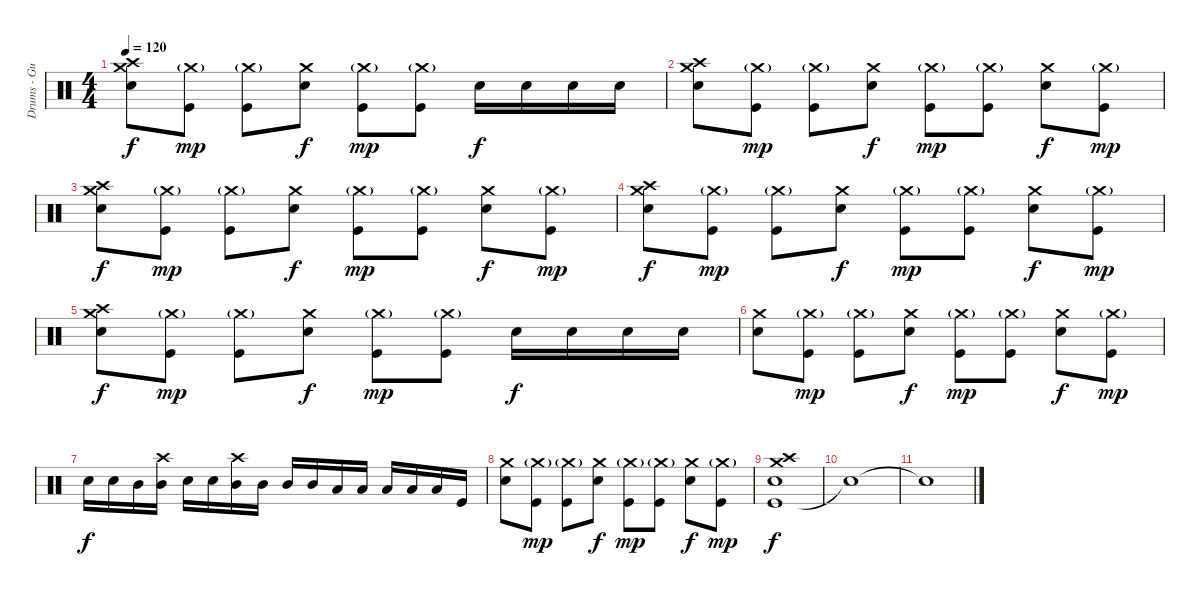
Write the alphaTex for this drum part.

\track ("Drums - Gustav" "Drums - Gu") {instrument percussion}
\staff {score}
\articulation defaults
\ts (4 4)
\tempo 120
\clef neutral
\ks c
("Snare (hit) 2" "Crash high (hit)" "Crash medium (hit)").8{dy f} ("Kick (hit)" "Crash medium (hit)"{g}).8{dy mp} ("Kick (hit)" "Crash medium (hit)"{g}).8 ("Snare (hit) 2" "Crash medium (hit)").8{dy f} ("Kick (hit)" "Crash medium (hit)"{g}).8{dy mp} ("Kick (hit)" "Crash medium (hit)"{g}).8 "Snare (hit) 2".16{dy f} "Snare (hit) 2".16 "Snare (hit) 2".16 "Snare (hit) 2".16 |
("Snare (hit) 2" "Crash high (hit)" "Crash medium (hit)").8 ("Kick (hit)" "Crash medium (hit)"{g}).8{dy mp} ("Kick (hit)" "Crash medium (hit)"{g}).8 ("Snare (hit) 2" "Crash medium (hit)").8{dy f} ("Kick (hit)" "Crash medium (hit)"{g}).8{dy mp} ("Kick (hit)" "Crash medium (hit)"{g}).8 ("Snare (hit) 2" "Crash medium (hit)").8{dy f} ("Kick (hit)" "Crash medium (hit)"{g}).8{dy mp} |
("Snare (hit) 2" "Crash high (hit)" "Crash medium (hit)").8{dy f} ("Kick (hit)" "Crash medium (hit)"{g}).8{dy mp} ("Kick (hit)" "Crash medium (hit)"{g}).8 ("Snare (hit) 2" "Crash medium (hit)").8{dy f} ("Kick (hit)" "Crash medium (hit)"{g}).8{dy mp} ("Kick (hit)" "Crash medium (hit)"{g}).8 ("Snare (hit) 2" "Crash medium (hit)").8{dy f} ("Kick (hit)" "Crash medium (hit)"{g}).8{dy mp} |
("Snare (hit) 2" "Crash high (hit)" "Crash medium (hit)").8{dy f} ("Kick (hit)" "Crash medium (hit)"{g}).8{dy mp} ("Kick (hit)" "Crash medium (hit)"{g}).8 ("Snare (hit) 2" "Crash medium (hit)").8{dy f} ("Kick (hit)" "Crash medium (hit)"{g}).8{dy mp} ("Kick (hit)" "Crash medium (hit)"{g}).8 ("Snare (hit) 2" "Crash medium (hit)").8{dy f} ("Kick (hit)" "Crash medium (hit)"{g}).8{dy mp} |
("Snare (hit) 2" "Crash high (hit)" "Crash medium (hit)").8{dy f} ("Kick (hit)" "Crash medium (hit)"{g}).8{dy mp} ("Kick (hit)" "Crash medium (hit)"{g}).8 ("Snare (hit) 2" "Crash medium (hit)").8{dy f} ("Kick (hit)" "Crash medium (hit)"{g}).8{dy mp} ("Kick (hit)" "Crash medium (hit)"{g}).8 "Snare (hit) 2".16{dy f} "Snare (hit) 2".16 "Snare (hit) 2".16 "Snare (hit) 2".16 |
("Snare (hit) 2" "Crash medium (hit)").8 ("Kick (hit)" "Crash medium (hit)"{g}).8{dy mp} ("Kick (hit)" "Crash medium (hit)"{g}).8 ("Snare (hit) 2" "Crash medium (hit)").8{dy f} ("Kick (hit)" "Crash medium (hit)"{g}).8{dy mp} ("Kick (hit)" "Crash medium (hit)"{g}).8 ("Snare (hit) 2" "Crash medium (hit)").8{dy f} ("Kick (hit)" "Crash medium (hit)"{g}).8{dy mp} |
"Snare (hit) 2".16{dy f} "Snare (hit) 2".16 "Mid Tom (hit)".16 ("Mid Tom (hit)" "Crash high (hit)").16 "Snare (hit) 2".16 "Snare (hit) 2".16 ("Mid Tom (hit)" "Crash high (hit)").16 "Mid Tom (hit)".16 "Mid Tom (hit)".16 "Mid Tom (hit)".16 "Low Tom (hit)".16 "Low Tom (hit)".16 "Low Tom (hit)".16 "Low Tom (hit)".16 "Low Floor Tom (hit)".16 "Kick (hit)".16 |
("Snare (hit) 2" "Crash medium (hit)").8 ("Kick (hit)" "Crash medium (hit)"{g}).8{dy mp} ("Kick (hit)" "Crash medium (hit)"{g}).8 ("Snare (hit) 2" "Crash medium (hit)").8{dy f} ("Kick (hit)" "Crash medium (hit)"{g}).8{dy mp} ("Kick (hit)" "Crash medium (hit)"{g}).8 ("Snare (hit) 2" "Crash medium (hit)").8{dy f} ("Kick (hit)" "Crash medium (hit)"{g}).8{dy mp} |
("Kick (hit)" "Snare (hit) 2" "Crash high (hit)" "Crash medium (hit)").1{dy f} |
"Snare (hit)"{t}.1 |
"Snare (hit)"{t}.1
